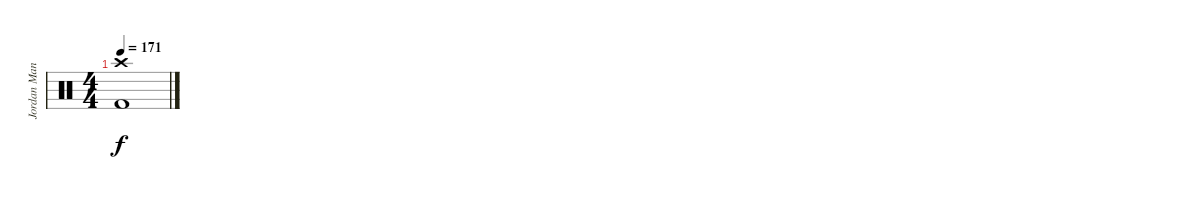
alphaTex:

\track ("Jordan Mancino" "Jordan Man") {instrument percussion}
\staff {score}
\articulation defaults
\ts (4 4)
\tempo 171
\clef neutral
\ks c
("Crash high (hit)" "Kick (hit) 2").1{dy f}
